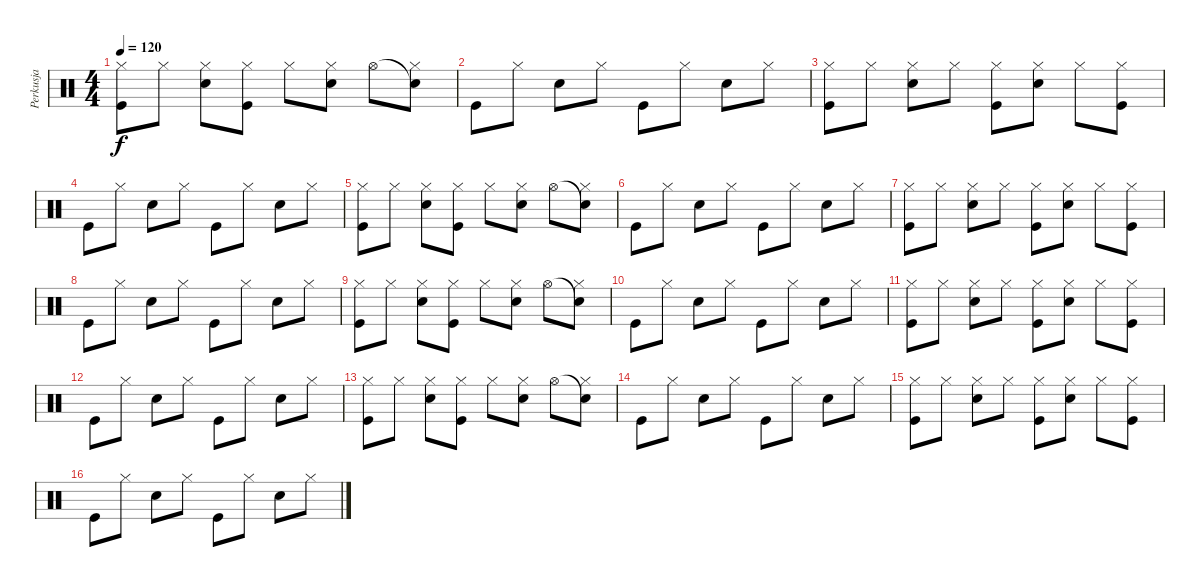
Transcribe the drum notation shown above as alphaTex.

\track ("Perkusja" "Perkusja") {instrument percussion}
\staff {score}
\articulation defaults
\ts (4 4)
\tempo 120
\clef neutral
\ks c
("Hi-Hat (closed)" "Kick (hit)").8{dy f} "Hi-Hat (closed)".8 ("Hi-Hat (closed)" "Snare (hit) 2").8 ("Hi-Hat (closed)" "Kick (hit)").8 "Hi-Hat (closed)".8 ("Hi-Hat (closed)" "Snare (hit) 2").8 "Hi-Hat (open)".8 ("Snare (hit)"{t} "Hi-Hat (closed)").8 |
"Kick (hit)".8 "Hi-Hat (closed)".8 "Snare (hit) 2".8 "Hi-Hat (closed)".8 "Kick (hit)".8 "Hi-Hat (closed)".8 "Snare (hit) 2".8 "Hi-Hat (closed)".8 |
("Hi-Hat (closed)" "Kick (hit)").8 "Hi-Hat (closed)".8 ("Hi-Hat (closed)" "Snare (hit) 2").8 "Hi-Hat (closed)".8 ("Hi-Hat (closed)" "Kick (hit)").8 ("Hi-Hat (closed)" "Snare (hit) 2").8 "Hi-Hat (closed)".8 ("Hi-Hat (closed)" "Kick (hit)").8 |
"Kick (hit)".8 "Hi-Hat (closed)".8 "Snare (hit) 2".8 "Hi-Hat (closed)".8 "Kick (hit)".8 "Hi-Hat (closed)".8 "Snare (hit) 2".8 "Hi-Hat (closed)".8 |
("Hi-Hat (closed)" "Kick (hit)").8 "Hi-Hat (closed)".8 ("Hi-Hat (closed)" "Snare (hit) 2").8 ("Hi-Hat (closed)" "Kick (hit)").8 "Hi-Hat (closed)".8 ("Hi-Hat (closed)" "Snare (hit) 2").8 "Hi-Hat (open)".8 ("Snare (hit)"{t} "Hi-Hat (closed)").8 |
"Kick (hit)".8 "Hi-Hat (closed)".8 "Snare (hit) 2".8 "Hi-Hat (closed)".8 "Kick (hit)".8 "Hi-Hat (closed)".8 "Snare (hit) 2".8 "Hi-Hat (closed)".8 |
("Hi-Hat (closed)" "Kick (hit)").8 "Hi-Hat (closed)".8 ("Hi-Hat (closed)" "Snare (hit) 2").8 "Hi-Hat (closed)".8 ("Hi-Hat (closed)" "Kick (hit)").8 ("Hi-Hat (closed)" "Snare (hit) 2").8 "Hi-Hat (closed)".8 ("Hi-Hat (closed)" "Kick (hit)").8 |
"Kick (hit)".8 "Hi-Hat (closed)".8 "Snare (hit) 2".8 "Hi-Hat (closed)".8 "Kick (hit)".8 "Hi-Hat (closed)".8 "Snare (hit) 2".8 "Hi-Hat (closed)".8 |
("Hi-Hat (closed)" "Kick (hit)").8 "Hi-Hat (closed)".8 ("Hi-Hat (closed)" "Snare (hit) 2").8 ("Hi-Hat (closed)" "Kick (hit)").8 "Hi-Hat (closed)".8 ("Hi-Hat (closed)" "Snare (hit) 2").8 "Hi-Hat (open)".8 ("Snare (hit)"{t} "Hi-Hat (closed)").8 |
"Kick (hit)".8 "Hi-Hat (closed)".8 "Snare (hit) 2".8 "Hi-Hat (closed)".8 "Kick (hit)".8 "Hi-Hat (closed)".8 "Snare (hit) 2".8 "Hi-Hat (closed)".8 |
("Hi-Hat (closed)" "Kick (hit)").8 "Hi-Hat (closed)".8 ("Hi-Hat (closed)" "Snare (hit) 2").8 "Hi-Hat (closed)".8 ("Hi-Hat (closed)" "Kick (hit)").8 ("Hi-Hat (closed)" "Snare (hit) 2").8 "Hi-Hat (closed)".8 ("Hi-Hat (closed)" "Kick (hit)").8 |
"Kick (hit)".8 "Hi-Hat (closed)".8 "Snare (hit) 2".8 "Hi-Hat (closed)".8 "Kick (hit)".8 "Hi-Hat (closed)".8 "Snare (hit) 2".8 "Hi-Hat (closed)".8 |
("Hi-Hat (closed)" "Kick (hit)").8 "Hi-Hat (closed)".8 ("Hi-Hat (closed)" "Snare (hit) 2").8 ("Hi-Hat (closed)" "Kick (hit)").8 "Hi-Hat (closed)".8 ("Hi-Hat (closed)" "Snare (hit) 2").8 "Hi-Hat (open)".8 ("Snare (hit)"{t} "Hi-Hat (closed)").8 |
"Kick (hit)".8 "Hi-Hat (closed)".8 "Snare (hit) 2".8 "Hi-Hat (closed)".8 "Kick (hit)".8 "Hi-Hat (closed)".8 "Snare (hit) 2".8 "Hi-Hat (closed)".8 |
("Hi-Hat (closed)" "Kick (hit)").8 "Hi-Hat (closed)".8 ("Hi-Hat (closed)" "Snare (hit) 2").8 "Hi-Hat (closed)".8 ("Hi-Hat (closed)" "Kick (hit)").8 ("Hi-Hat (closed)" "Snare (hit) 2").8 "Hi-Hat (closed)".8 ("Hi-Hat (closed)" "Kick (hit)").8 |
"Kick (hit)".8 "Hi-Hat (closed)".8 "Snare (hit) 2".8 "Hi-Hat (closed)".8 "Kick (hit)".8 "Hi-Hat (closed)".8 "Snare (hit) 2".8 "Hi-Hat (closed)".8
